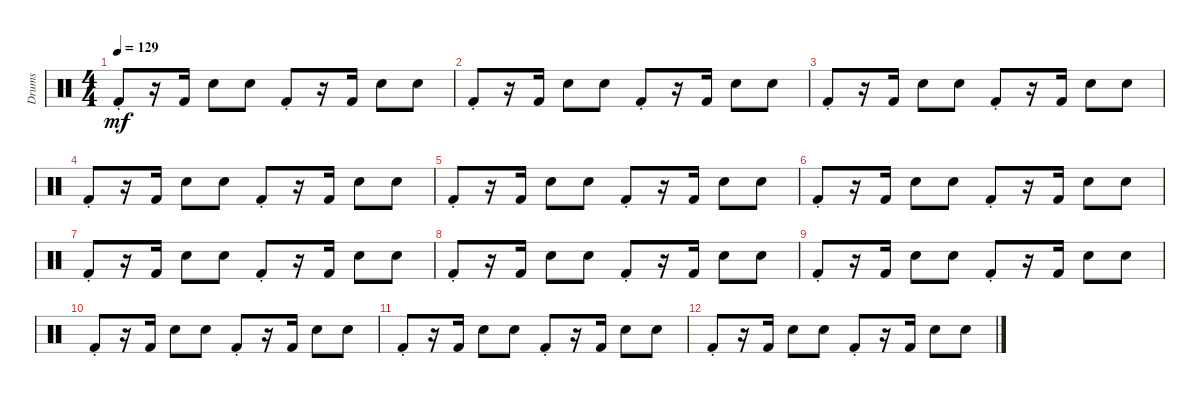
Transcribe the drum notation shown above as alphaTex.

\track ("Drums" "Drums") {instrument percussion}
\staff {score}
\articulation defaults
\ts (4 4)
\tempo 129
\clef neutral
\ks c "Kick (hit) 2"{st}.8{dy mf}
r.16 "Kick (hit) 2".16 "Electric Snare (hit)".8 "Electric Snare (hit)".8 "Kick (hit) 2"{st}.8 r.16 "Kick (hit) 2".16 "Electric Snare (hit)".8 "Electric Snare (hit)".8 |
"Kick (hit) 2"{st}.8 r.16 "Kick (hit) 2".16 "Electric Snare (hit)".8 "Electric Snare (hit)".8 "Kick (hit) 2"{st}.8 r.16 "Kick (hit) 2".16 "Electric Snare (hit)".8 "Electric Snare (hit)".8 |
"Kick (hit) 2"{st}.8 r.16 "Kick (hit) 2".16 "Electric Snare (hit)".8 "Electric Snare (hit)".8 "Kick (hit) 2"{st}.8 r.16 "Kick (hit) 2".16 "Electric Snare (hit)".8 "Electric Snare (hit)".8 |
"Kick (hit) 2"{st}.8 r.16 "Kick (hit) 2".16 "Electric Snare (hit)".8 "Electric Snare (hit)".8 "Kick (hit) 2"{st}.8 r.16 "Kick (hit) 2".16 "Electric Snare (hit)".8 "Electric Snare (hit)".8 |
"Kick (hit) 2"{st}.8 r.16 "Kick (hit) 2".16 "Electric Snare (hit)".8 "Electric Snare (hit)".8 "Kick (hit) 2"{st}.8 r.16 "Kick (hit) 2".16 "Electric Snare (hit)".8 "Electric Snare (hit)".8 |
"Kick (hit) 2"{st}.8 r.16 "Kick (hit) 2".16 "Electric Snare (hit)".8 "Electric Snare (hit)".8 "Kick (hit) 2"{st}.8 r.16 "Kick (hit) 2".16 "Electric Snare (hit)".8 "Electric Snare (hit)".8 |
"Kick (hit) 2"{st}.8 r.16 "Kick (hit) 2".16 "Electric Snare (hit)".8 "Electric Snare (hit)".8 "Kick (hit) 2"{st}.8 r.16 "Kick (hit) 2".16 "Electric Snare (hit)".8 "Electric Snare (hit)".8 |
"Kick (hit) 2"{st}.8 r.16 "Kick (hit) 2".16 "Electric Snare (hit)".8 "Electric Snare (hit)".8 "Kick (hit) 2"{st}.8 r.16 "Kick (hit) 2".16 "Electric Snare (hit)".8 "Electric Snare (hit)".8 |
"Kick (hit) 2"{st}.8 r.16 "Kick (hit) 2".16 "Electric Snare (hit)".8 "Electric Snare (hit)".8 "Kick (hit) 2"{st}.8 r.16 "Kick (hit) 2".16 "Electric Snare (hit)".8 "Electric Snare (hit)".8 |
"Kick (hit) 2"{st}.8 r.16 "Kick (hit) 2".16 "Electric Snare (hit)".8 "Electric Snare (hit)".8 "Kick (hit) 2"{st}.8 r.16 "Kick (hit) 2".16 "Electric Snare (hit)".8 "Electric Snare (hit)".8 |
"Kick (hit) 2"{st}.8 r.16 "Kick (hit) 2".16 "Electric Snare (hit)".8 "Electric Snare (hit)".8 "Kick (hit) 2"{st}.8 r.16 "Kick (hit) 2".16 "Electric Snare (hit)".8 "Electric Snare (hit)".8 |
"Kick (hit) 2"{st}.8 r.16 "Kick (hit) 2".16 "Electric Snare (hit)".8 "Electric Snare (hit)".8 "Kick (hit) 2"{st}.8 r.16 "Kick (hit) 2".16 "Electric Snare (hit)".8 "Electric Snare (hit)".8
